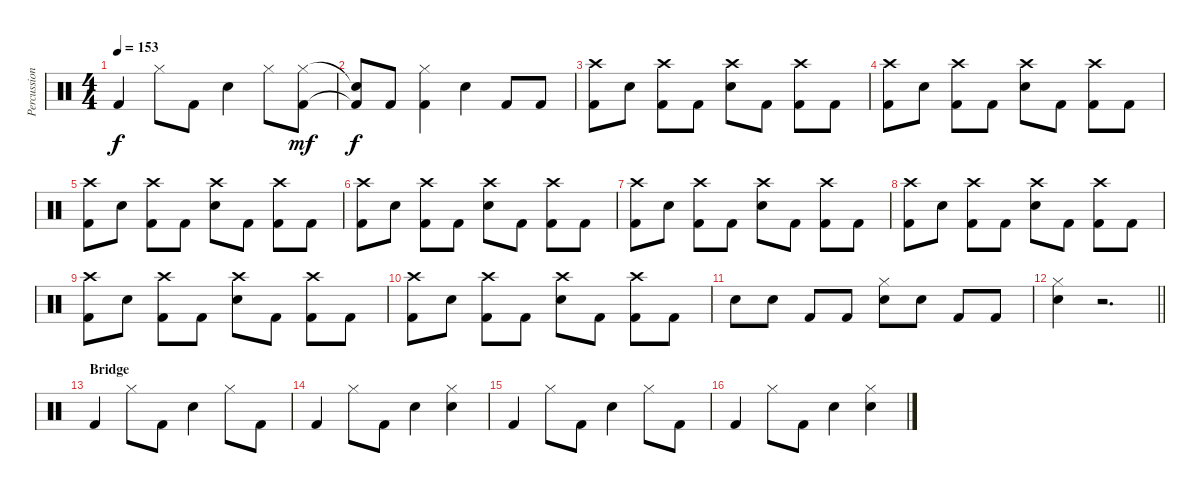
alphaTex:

\track ("Percussion" "Percussion") {instrument percussion}
\staff {score}
\articulation defaults
\ts (4 4)
\tempo 153
\clef neutral
\ks c "Kick (hit) 2".4{dy f} "Hi-Hat (closed)".8 "Kick (hit) 2".8 "Snare (hit) 2".4 "Hi-Hat (closed)".8
("Kick (hit) 2" "Hi-Hat (closed)").8{dy mf} |
("Kick (hit) 2"{t} "Snare (hit)"{t}).8{dy f} "Kick (hit) 2".8 ("Kick (hit) 2" "Hi-Hat (closed)").4 "Snare (hit) 2".4 "Kick (hit) 2".8 "Kick (hit) 2".8 |
("Kick (hit) 2" "Crash high (hit)").8 "Snare (hit) 2".8 ("Kick (hit) 2" "Crash high (hit)").8 "Kick (hit) 2".8 ("Snare (hit) 2" "Crash high (hit)").8 "Kick (hit) 2".8 ("Kick (hit) 2" "Crash high (hit)").8 "Kick (hit) 2".8 |
("Kick (hit) 2" "Crash high (hit)").8 "Snare (hit) 2".8 ("Kick (hit) 2" "Crash high (hit)").8 "Kick (hit) 2".8 ("Snare (hit) 2" "Crash high (hit)").8 "Kick (hit) 2".8 ("Kick (hit) 2" "Crash high (hit)").8 "Kick (hit) 2".8 |
("Kick (hit) 2" "Crash high (hit)").8 "Snare (hit) 2".8 ("Kick (hit) 2" "Crash high (hit)").8 "Kick (hit) 2".8 ("Snare (hit) 2" "Crash high (hit)").8 "Kick (hit) 2".8 ("Kick (hit) 2" "Crash high (hit)").8 "Kick (hit) 2".8 |
("Kick (hit) 2" "Crash high (hit)").8 "Snare (hit) 2".8 ("Kick (hit) 2" "Crash high (hit)").8 "Kick (hit) 2".8 ("Snare (hit) 2" "Crash high (hit)").8 "Kick (hit) 2".8 ("Kick (hit) 2" "Crash high (hit)").8 "Kick (hit) 2".8 |
("Kick (hit) 2" "Crash high (hit)").8 "Snare (hit) 2".8 ("Kick (hit) 2" "Crash high (hit)").8 "Kick (hit) 2".8 ("Snare (hit) 2" "Crash high (hit)").8 "Kick (hit) 2".8 ("Kick (hit) 2" "Crash high (hit)").8 "Kick (hit) 2".8 |
("Kick (hit) 2" "Crash high (hit)").8 "Snare (hit) 2".8 ("Kick (hit) 2" "Crash high (hit)").8 "Kick (hit) 2".8 ("Snare (hit) 2" "Crash high (hit)").8 "Kick (hit) 2".8 ("Kick (hit) 2" "Crash high (hit)").8 "Kick (hit) 2".8 |
("Kick (hit) 2" "Crash high (hit)").8 "Snare (hit) 2".8 ("Kick (hit) 2" "Crash high (hit)").8 "Kick (hit) 2".8 ("Snare (hit) 2" "Crash high (hit)").8 "Kick (hit) 2".8 ("Kick (hit) 2" "Crash high (hit)").8 "Kick (hit) 2".8 |
("Kick (hit) 2" "Crash high (hit)").8 "Snare (hit) 2".8 ("Kick (hit) 2" "Crash high (hit)").8 "Kick (hit) 2".8 ("Snare (hit) 2" "Crash high (hit)").8 "Kick (hit) 2".8 ("Kick (hit) 2" "Crash high (hit)").8 "Kick (hit) 2".8 |
"Snare (hit) 2".8 "Snare (hit) 2".8 "Kick (hit) 2".8 "Kick (hit) 2".8 ("Snare (hit) 2" "Hi-Hat (closed)").8 "Snare (hit) 2".8 "Kick (hit) 2".8 "Kick (hit) 2".8 |
\barLineRight lightlight
("Snare (hit) 2" "Hi-Hat (closed)").4 r.2{d} |
\section ("" "Bridge")
"Kick (hit) 2".4 "Hi-Hat (closed)".8 "Kick (hit) 2".8 "Snare (hit) 2".4 "Hi-Hat (closed)".8 "Kick (hit) 2".8 |
"Kick (hit) 2".4 "Hi-Hat (closed)".8 "Kick (hit) 2".8 "Snare (hit) 2".4 ("Snare (hit) 2" "Hi-Hat (closed)").4 |
"Kick (hit) 2".4 "Hi-Hat (closed)".8 "Kick (hit) 2".8 "Snare (hit) 2".4 "Hi-Hat (closed)".8 "Kick (hit) 2".8 |
"Kick (hit) 2".4 "Hi-Hat (closed)".8 "Kick (hit) 2".8 "Snare (hit) 2".4 ("Snare (hit) 2" "Hi-Hat (closed)").4
